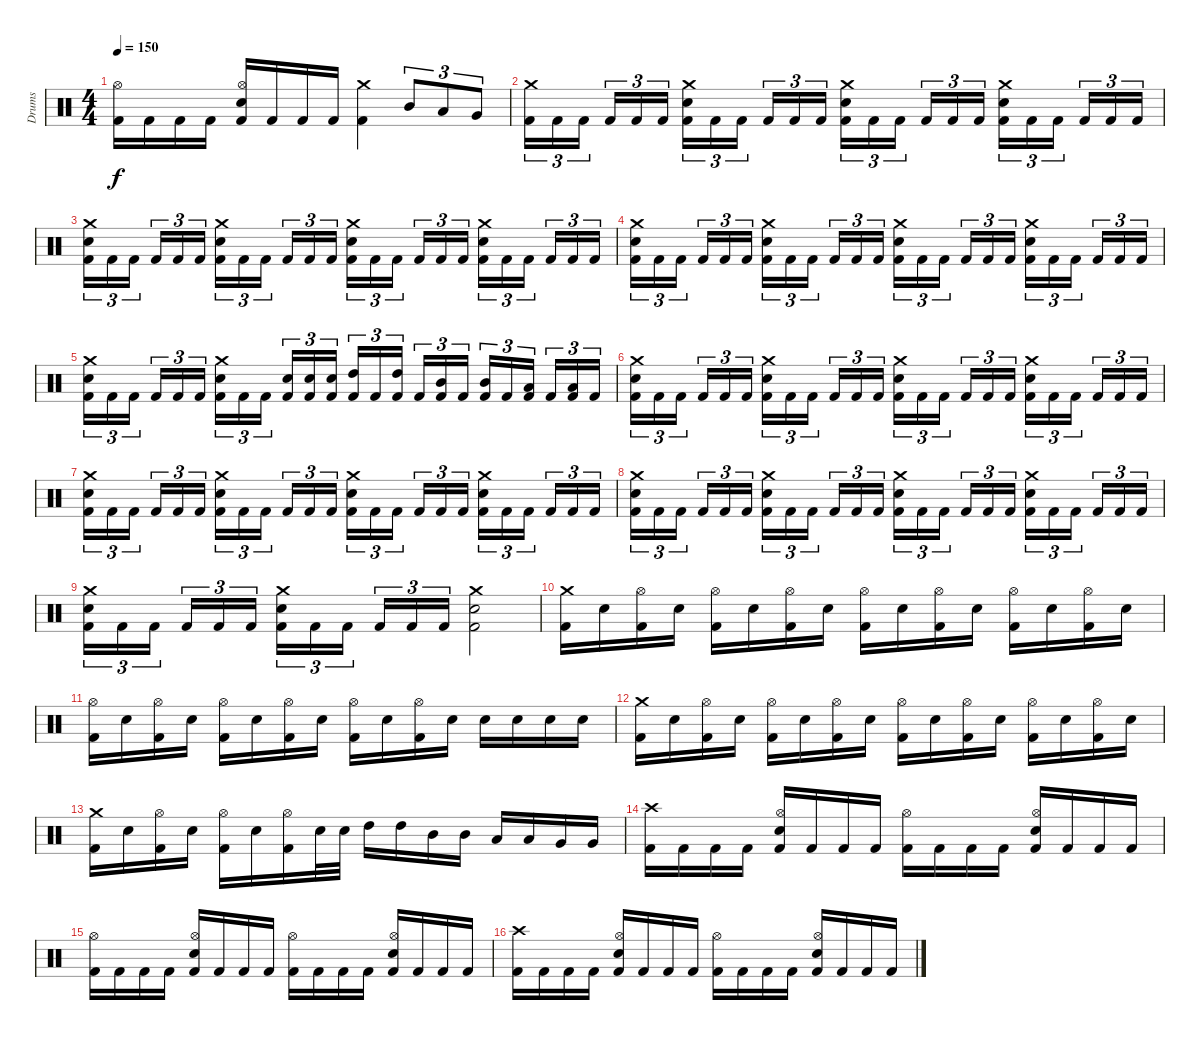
\track ("Drums" "Drums") {instrument percussion}
\staff {score}
\articulation defaults
\ts (4 4)
\tempo 150
\clef neutral
\ks c
("Kick (hit) 2" "Hi-Hat (open)").16{dy f} "Kick (hit) 2".16 "Kick (hit) 2".16 "Kick (hit) 2".16 ("Kick (hit) 2" "Electric Snare (hit)" "Hi-Hat (open)").16 "Kick (hit) 2".16 "Kick (hit) 2".16 "Kick (hit) 2".16 ("Kick (hit) 2" "Crash medium (hit)").4 "Mid Tom (hit)".8{tu (3 2)} "Low Tom (hit)".8{tu (3 2)} "Very Low Tom (hit)".8{tu (3 2)} |
("Kick (hit) 2" "Crash medium (hit)").16{tu (3 2)} "Kick (hit) 2".16{tu (3 2)} "Kick (hit) 2".16{tu (3 2)} "Kick (hit) 2".16{tu (3 2)} "Kick (hit) 2".16{tu (3 2)} "Kick (hit) 2".16{tu (3 2)} ("Kick (hit) 2" "Electric Snare (hit)" "Crash medium (hit)").16{tu (3 2)} "Kick (hit) 2".16{tu (3 2)} "Kick (hit) 2".16{tu (3 2)} "Kick (hit) 2".16{tu (3 2)} "Kick (hit) 2".16{tu (3 2)} "Kick (hit) 2".16{tu (3 2)} ("Kick (hit) 2" "Electric Snare (hit)" "Crash medium (hit)").16{tu (3 2)} "Kick (hit) 2".16{tu (3 2)} "Kick (hit) 2".16{tu (3 2)} "Kick (hit) 2".16{tu (3 2)} "Kick (hit) 2".16{tu (3 2)} "Kick (hit) 2".16{tu (3 2)} ("Kick (hit) 2" "Electric Snare (hit)" "Crash medium (hit)").16{tu (3 2)} "Kick (hit) 2".16{tu (3 2)} "Kick (hit) 2".16{tu (3 2)} "Kick (hit) 2".16{tu (3 2)} "Kick (hit) 2".16{tu (3 2)} "Kick (hit) 2".16{tu (3 2)} |
("Kick (hit) 2" "Electric Snare (hit)" "Crash medium (hit)").16{tu (3 2)} "Kick (hit) 2".16{tu (3 2)} "Kick (hit) 2".16{tu (3 2)} "Kick (hit) 2".16{tu (3 2)} "Kick (hit) 2".16{tu (3 2)} "Kick (hit) 2".16{tu (3 2)} ("Kick (hit) 2" "Electric Snare (hit)" "Crash medium (hit)").16{tu (3 2)} "Kick (hit) 2".16{tu (3 2)} "Kick (hit) 2".16{tu (3 2)} "Kick (hit) 2".16{tu (3 2)} "Kick (hit) 2".16{tu (3 2)} "Kick (hit) 2".16{tu (3 2)} ("Kick (hit) 2" "Electric Snare (hit)" "Crash medium (hit)").16{tu (3 2)} "Kick (hit) 2".16{tu (3 2)} "Kick (hit) 2".16{tu (3 2)} "Kick (hit) 2".16{tu (3 2)} "Kick (hit) 2".16{tu (3 2)} "Kick (hit) 2".16{tu (3 2)} ("Kick (hit) 2" "Electric Snare (hit)" "Crash medium (hit)").16{tu (3 2)} "Kick (hit) 2".16{tu (3 2)} "Kick (hit) 2".16{tu (3 2)} "Kick (hit) 2".16{tu (3 2)} "Kick (hit) 2".16{tu (3 2)} "Kick (hit) 2".16{tu (3 2)} |
("Kick (hit) 2" "Electric Snare (hit)" "Crash medium (hit)").16{tu (3 2)} "Kick (hit) 2".16{tu (3 2)} "Kick (hit) 2".16{tu (3 2)} "Kick (hit) 2".16{tu (3 2)} "Kick (hit) 2".16{tu (3 2)} "Kick (hit) 2".16{tu (3 2)} ("Kick (hit) 2" "Electric Snare (hit)" "Crash medium (hit)").16{tu (3 2)} "Kick (hit) 2".16{tu (3 2)} "Kick (hit) 2".16{tu (3 2)} "Kick (hit) 2".16{tu (3 2)} "Kick (hit) 2".16{tu (3 2)} "Kick (hit) 2".16{tu (3 2)} ("Kick (hit) 2" "Electric Snare (hit)" "Crash medium (hit)").16{tu (3 2)} "Kick (hit) 2".16{tu (3 2)} "Kick (hit) 2".16{tu (3 2)} "Kick (hit) 2".16{tu (3 2)} "Kick (hit) 2".16{tu (3 2)} "Kick (hit) 2".16{tu (3 2)} ("Kick (hit) 2" "Electric Snare (hit)" "Crash medium (hit)").16{tu (3 2)} "Kick (hit) 2".16{tu (3 2)} "Kick (hit) 2".16{tu (3 2)} "Kick (hit) 2".16{tu (3 2)} "Kick (hit) 2".16{tu (3 2)} "Kick (hit) 2".16{tu (3 2)} |
("Kick (hit) 2" "Electric Snare (hit)" "Crash medium (hit)").16{tu (3 2)} "Kick (hit) 2".16{tu (3 2)} "Kick (hit) 2".16{tu (3 2)} "Kick (hit) 2".16{tu (3 2)} "Kick (hit) 2".16{tu (3 2)} "Kick (hit) 2".16{tu (3 2)} ("Kick (hit) 2" "Electric Snare (hit)" "Crash medium (hit)").16{tu (3 2)} "Kick (hit) 2".16{tu (3 2)} "Kick (hit) 2".16{tu (3 2)} ("Kick (hit) 2" "Electric Snare (hit)").16{tu (3 2)} ("Kick (hit) 2" "Electric Snare (hit)").16{tu (3 2)} ("Kick (hit) 2" "Electric Snare (hit)").16{tu (3 2)} ("Kick (hit) 2" "High Tom (hit)").16{tu (3 2)} "Kick (hit) 2".16{tu (3 2)} ("Kick (hit) 2" "High Tom (hit)").16{tu (3 2)} "Kick (hit) 2".16{tu (3 2)} ("Kick (hit) 2" "Mid Tom (hit)").16{tu (3 2)} "Kick (hit) 2".16{tu (3 2)} ("Kick (hit) 2" "Mid Tom (hit)").16{tu (3 2)} "Kick (hit) 2".16{tu (3 2)} ("Kick (hit) 2" "Low Tom (hit)").16{tu (3 2)} "Kick (hit) 2".16{tu (3 2)} ("Kick (hit) 2" "Low Tom (hit)").16{tu (3 2)} "Kick (hit) 2".16{tu (3 2)} |
("Kick (hit) 2" "Electric Snare (hit)" "Crash medium (hit)").16{tu (3 2)} "Kick (hit) 2".16{tu (3 2)} "Kick (hit) 2".16{tu (3 2)} "Kick (hit) 2".16{tu (3 2)} "Kick (hit) 2".16{tu (3 2)} "Kick (hit) 2".16{tu (3 2)} ("Kick (hit) 2" "Electric Snare (hit)" "Crash medium (hit)").16{tu (3 2)} "Kick (hit) 2".16{tu (3 2)} "Kick (hit) 2".16{tu (3 2)} "Kick (hit) 2".16{tu (3 2)} "Kick (hit) 2".16{tu (3 2)} "Kick (hit) 2".16{tu (3 2)} ("Kick (hit) 2" "Electric Snare (hit)" "Crash medium (hit)").16{tu (3 2)} "Kick (hit) 2".16{tu (3 2)} "Kick (hit) 2".16{tu (3 2)} "Kick (hit) 2".16{tu (3 2)} "Kick (hit) 2".16{tu (3 2)} "Kick (hit) 2".16{tu (3 2)} ("Kick (hit) 2" "Electric Snare (hit)" "Crash medium (hit)").16{tu (3 2)} "Kick (hit) 2".16{tu (3 2)} "Kick (hit) 2".16{tu (3 2)} "Kick (hit) 2".16{tu (3 2)} "Kick (hit) 2".16{tu (3 2)} "Kick (hit) 2".16{tu (3 2)} |
("Kick (hit) 2" "Electric Snare (hit)" "Crash medium (hit)").16{tu (3 2)} "Kick (hit) 2".16{tu (3 2)} "Kick (hit) 2".16{tu (3 2)} "Kick (hit) 2".16{tu (3 2)} "Kick (hit) 2".16{tu (3 2)} "Kick (hit) 2".16{tu (3 2)} ("Kick (hit) 2" "Electric Snare (hit)" "Crash medium (hit)").16{tu (3 2)} "Kick (hit) 2".16{tu (3 2)} "Kick (hit) 2".16{tu (3 2)} "Kick (hit) 2".16{tu (3 2)} "Kick (hit) 2".16{tu (3 2)} "Kick (hit) 2".16{tu (3 2)} ("Kick (hit) 2" "Electric Snare (hit)" "Crash medium (hit)").16{tu (3 2)} "Kick (hit) 2".16{tu (3 2)} "Kick (hit) 2".16{tu (3 2)} "Kick (hit) 2".16{tu (3 2)} "Kick (hit) 2".16{tu (3 2)} "Kick (hit) 2".16{tu (3 2)} ("Kick (hit) 2" "Electric Snare (hit)" "Crash medium (hit)").16{tu (3 2)} "Kick (hit) 2".16{tu (3 2)} "Kick (hit) 2".16{tu (3 2)} "Kick (hit) 2".16{tu (3 2)} "Kick (hit) 2".16{tu (3 2)} "Kick (hit) 2".16{tu (3 2)} |
("Kick (hit) 2" "Electric Snare (hit)" "Crash medium (hit)").16{tu (3 2)} "Kick (hit) 2".16{tu (3 2)} "Kick (hit) 2".16{tu (3 2)} "Kick (hit) 2".16{tu (3 2)} "Kick (hit) 2".16{tu (3 2)} "Kick (hit) 2".16{tu (3 2)} ("Kick (hit) 2" "Electric Snare (hit)" "Crash medium (hit)").16{tu (3 2)} "Kick (hit) 2".16{tu (3 2)} "Kick (hit) 2".16{tu (3 2)} "Kick (hit) 2".16{tu (3 2)} "Kick (hit) 2".16{tu (3 2)} "Kick (hit) 2".16{tu (3 2)} ("Kick (hit) 2" "Electric Snare (hit)" "Crash medium (hit)").16{tu (3 2)} "Kick (hit) 2".16{tu (3 2)} "Kick (hit) 2".16{tu (3 2)} "Kick (hit) 2".16{tu (3 2)} "Kick (hit) 2".16{tu (3 2)} "Kick (hit) 2".16{tu (3 2)} ("Kick (hit) 2" "Electric Snare (hit)" "Crash medium (hit)").16{tu (3 2)} "Kick (hit) 2".16{tu (3 2)} "Kick (hit) 2".16{tu (3 2)} "Kick (hit) 2".16{tu (3 2)} "Kick (hit) 2".16{tu (3 2)} "Kick (hit) 2".16{tu (3 2)} |
("Kick (hit) 2" "Electric Snare (hit)" "Crash medium (hit)").16{tu (3 2)} "Kick (hit) 2".16{tu (3 2)} "Kick (hit) 2".16{tu (3 2)} "Kick (hit) 2".16{tu (3 2)} "Kick (hit) 2".16{tu (3 2)} "Kick (hit) 2".16{tu (3 2)} ("Kick (hit) 2" "Electric Snare (hit)" "Crash medium (hit)").16{tu (3 2)} "Kick (hit) 2".16{tu (3 2)} "Kick (hit) 2".16{tu (3 2)} "Kick (hit) 2".16{tu (3 2)} "Kick (hit) 2".16{tu (3 2)} "Kick (hit) 2".16{tu (3 2)} ("Kick (hit) 2" "Electric Snare (hit)" "Crash medium (hit)").2 |
("Kick (hit) 2" "Crash medium (hit)").16 "Electric Snare (hit)".16 ("Kick (hit) 2" "Hi-Hat (open)").16 "Electric Snare (hit)".16 ("Kick (hit) 2" "Hi-Hat (open)").16 "Electric Snare (hit)".16 ("Kick (hit) 2" "Hi-Hat (open)").16 "Electric Snare (hit)".16 ("Kick (hit) 2" "Hi-Hat (open)").16 "Electric Snare (hit)".16 ("Kick (hit) 2" "Hi-Hat (open)").16 "Electric Snare (hit)".16 ("Kick (hit) 2" "Hi-Hat (open)").16 "Electric Snare (hit)".16 ("Kick (hit) 2" "Hi-Hat (open)").16 "Electric Snare (hit)".16 |
("Kick (hit) 2" "Hi-Hat (open)").16 "Electric Snare (hit)".16 ("Kick (hit) 2" "Hi-Hat (open)").16 "Electric Snare (hit)".16 ("Kick (hit) 2" "Hi-Hat (open)").16 "Electric Snare (hit)".16 ("Kick (hit) 2" "Hi-Hat (open)").16 "Electric Snare (hit)".16 ("Kick (hit) 2" "Hi-Hat (open)").16 "Electric Snare (hit)".16 ("Kick (hit) 2" "Hi-Hat (open)").16 "Electric Snare (hit)".16 "Electric Snare (hit)".16 "Electric Snare (hit)".16 "Electric Snare (hit)".16 "Electric Snare (hit)".16 |
("Kick (hit) 2" "Crash medium (hit)").16 "Electric Snare (hit)".16 ("Kick (hit) 2" "Hi-Hat (open)").16 "Electric Snare (hit)".16 ("Kick (hit) 2" "Hi-Hat (open)").16 "Electric Snare (hit)".16 ("Kick (hit) 2" "Hi-Hat (open)").16 "Electric Snare (hit)".16 ("Kick (hit) 2" "Hi-Hat (open)").16 "Electric Snare (hit)".16 ("Kick (hit) 2" "Hi-Hat (open)").16 "Electric Snare (hit)".16 ("Kick (hit) 2" "Hi-Hat (open)").16 "Electric Snare (hit)".16 ("Kick (hit) 2" "Hi-Hat (open)").16 "Electric Snare (hit)".16 |
("Kick (hit) 2" "Crash medium (hit)").16 "Electric Snare (hit)".16 ("Kick (hit) 2" "Hi-Hat (open)").16 "Electric Snare (hit)".16 ("Kick (hit) 2" "Hi-Hat (open)").16 "Electric Snare (hit)".16 ("Kick (hit) 2" "Hi-Hat (open)").16 "Electric Snare (hit)".32 "Electric Snare (hit)".32 "High Tom (hit)".16 "High Tom (hit)".16 "Mid Tom (hit)".16 "Mid Tom (hit)".16 "Low Tom (hit)".16 "Low Tom (hit)".16 "Very Low Tom (hit)".16 "Very Low Tom (hit)".16 |
("Kick (hit) 2" "Crash high (hit)").16 "Kick (hit) 2".16 "Kick (hit) 2".16 "Kick (hit) 2".16 ("Kick (hit) 2" "Electric Snare (hit)" "Hi-Hat (open)").16 "Kick (hit) 2".16 "Kick (hit) 2".16 "Kick (hit) 2".16 ("Kick (hit) 2" "Hi-Hat (open)").16 "Kick (hit) 2".16 "Kick (hit) 2".16 "Kick (hit) 2".16 ("Kick (hit) 2" "Electric Snare (hit)" "Hi-Hat (open)").16 "Kick (hit) 2".16 "Kick (hit) 2".16 "Kick (hit) 2".16 |
("Kick (hit) 2" "Hi-Hat (open)").16 "Kick (hit) 2".16 "Kick (hit) 2".16 "Kick (hit) 2".16 ("Kick (hit) 2" "Electric Snare (hit)" "Hi-Hat (open)").16 "Kick (hit) 2".16 "Kick (hit) 2".16 "Kick (hit) 2".16 ("Kick (hit) 2" "Hi-Hat (open)").16 "Kick (hit) 2".16 "Kick (hit) 2".16 "Kick (hit) 2".16 ("Kick (hit) 2" "Electric Snare (hit)" "Hi-Hat (open)").16 "Kick (hit) 2".16 "Kick (hit) 2".16 "Kick (hit) 2".16 |
("Kick (hit) 2" "Crash high (hit)").16 "Kick (hit) 2".16 "Kick (hit) 2".16 "Kick (hit) 2".16 ("Kick (hit) 2" "Electric Snare (hit)" "Hi-Hat (open)").16 "Kick (hit) 2".16 "Kick (hit) 2".16 "Kick (hit) 2".16 ("Kick (hit) 2" "Hi-Hat (open)").16 "Kick (hit) 2".16 "Kick (hit) 2".16 "Kick (hit) 2".16 ("Kick (hit) 2" "Electric Snare (hit)" "Hi-Hat (open)").16 "Kick (hit) 2".16 "Kick (hit) 2".16 "Kick (hit) 2".16
